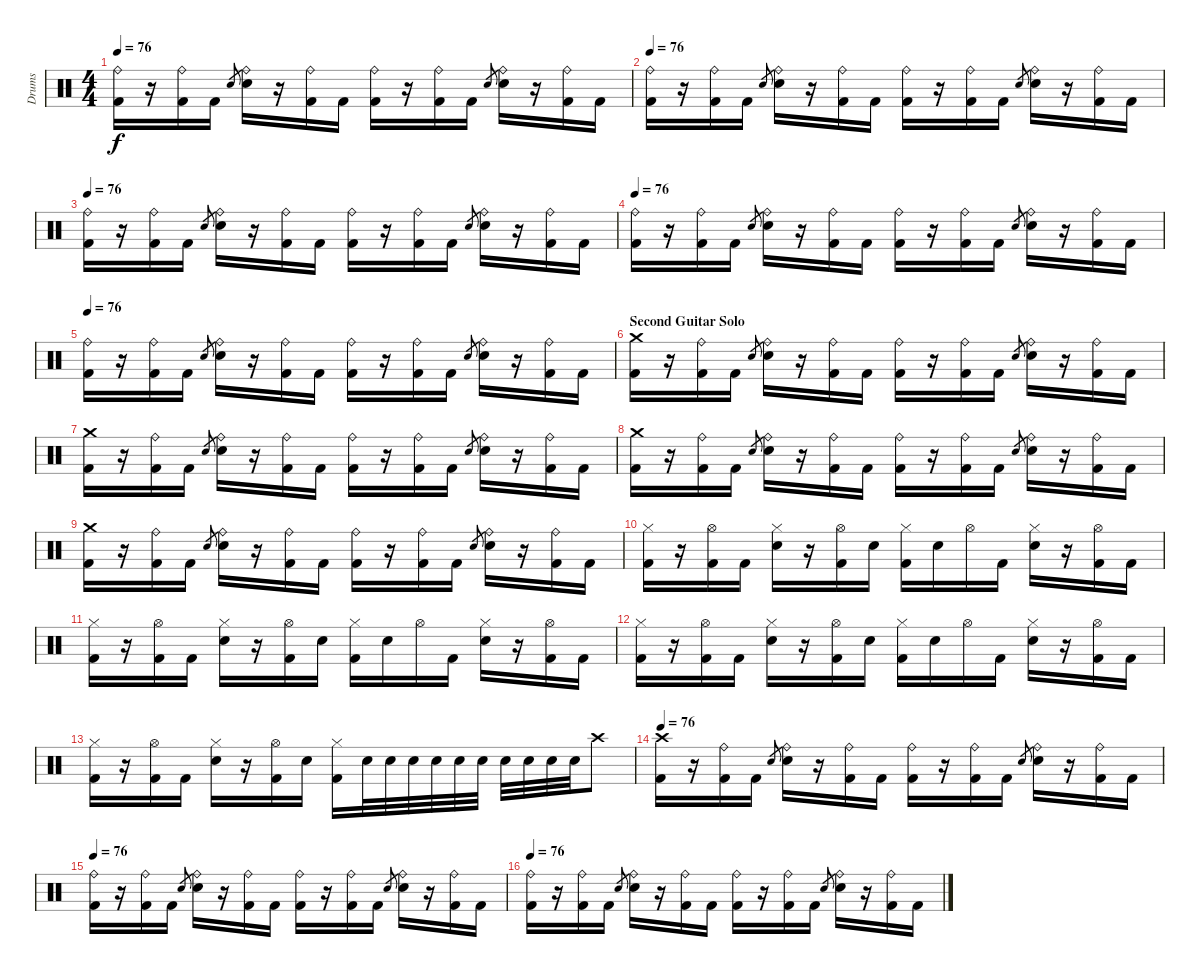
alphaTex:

\track ("Drums" "Drums") {instrument percussion}
\staff {score}
\articulation defaults
\ts (4 4)
\tempo 76
\clef neutral
\ks c
("Ride (bell)" "Kick (hit) 2").16{dy f} r.16 ("Ride (bell)" "Kick (hit) 2").16 "Kick (hit) 2".16 "Electric Snare (hit)".8{gr} ("Ride (bell)" "Electric Snare (hit)").16 r.16 ("Ride (bell)" "Kick (hit) 2").16 "Kick (hit) 2".16 ("Ride (bell)" "Kick (hit) 2").16 r.16 ("Ride (bell)" "Kick (hit) 2").16 "Kick (hit) 2".16 "Electric Snare (hit)".8{gr} ("Ride (bell)" "Electric Snare (hit)").16 r.16 ("Ride (bell)" "Kick (hit) 2").16 "Kick (hit) 2".16 |
\tempo 76
("Ride (bell)" "Kick (hit) 2").16 r.16 ("Ride (bell)" "Kick (hit) 2").16 "Kick (hit) 2".16 "Electric Snare (hit)".8{gr} ("Ride (bell)" "Electric Snare (hit)").16 r.16 ("Ride (bell)" "Kick (hit) 2").16 "Kick (hit) 2".16 ("Ride (bell)" "Kick (hit) 2").16 r.16 ("Ride (bell)" "Kick (hit) 2").16 "Kick (hit) 2".16 "Electric Snare (hit)".8{gr} ("Ride (bell)" "Electric Snare (hit)").16 r.16 ("Ride (bell)" "Kick (hit) 2").16 "Kick (hit) 2".16 |
\tempo 76
("Ride (bell)" "Kick (hit) 2").16 r.16 ("Ride (bell)" "Kick (hit) 2").16 "Kick (hit) 2".16 "Electric Snare (hit)".8{gr} ("Ride (bell)" "Electric Snare (hit)").16 r.16 ("Ride (bell)" "Kick (hit) 2").16 "Kick (hit) 2".16 ("Ride (bell)" "Kick (hit) 2").16 r.16 ("Ride (bell)" "Kick (hit) 2").16 "Kick (hit) 2".16 "Electric Snare (hit)".8{gr} ("Ride (bell)" "Electric Snare (hit)").16 r.16 ("Ride (bell)" "Kick (hit) 2").16 "Kick (hit) 2".16 |
\tempo 76
("Ride (bell)" "Kick (hit) 2").16 r.16 ("Ride (bell)" "Kick (hit) 2").16 "Kick (hit) 2".16 "Electric Snare (hit)".8{gr} ("Ride (bell)" "Electric Snare (hit)").16 r.16 ("Ride (bell)" "Kick (hit) 2").16 "Kick (hit) 2".16 ("Ride (bell)" "Kick (hit) 2").16 r.16 ("Ride (bell)" "Kick (hit) 2").16 "Kick (hit) 2".16 "Electric Snare (hit)".8{gr} ("Ride (bell)" "Electric Snare (hit)").16 r.16 ("Ride (bell)" "Kick (hit) 2").16 "Kick (hit) 2".16 |
\tempo 76
("Ride (bell)" "Kick (hit) 2").16 r.16 ("Ride (bell)" "Kick (hit) 2").16 "Kick (hit) 2".16 "Electric Snare (hit)".8{gr} ("Ride (bell)" "Electric Snare (hit)").16 r.16 ("Ride (bell)" "Kick (hit) 2").16 "Kick (hit) 2".16 ("Ride (bell)" "Kick (hit) 2").16 r.16 ("Ride (bell)" "Kick (hit) 2").16 "Kick (hit) 2".16 "Electric Snare (hit)".8{gr} ("Ride (bell)" "Electric Snare (hit)").16 r.16 ("Ride (bell)" "Kick (hit) 2").16 "Kick (hit) 2".16 |
\section ("" "Second Guitar Solo")
("Crash medium (hit)" "Kick (hit) 2").16 r.16 ("Ride (bell)" "Kick (hit) 2").16 "Kick (hit) 2".16 "Electric Snare (hit)".8{gr} ("Ride (bell)" "Electric Snare (hit)").16 r.16 ("Ride (bell)" "Kick (hit) 2").16 "Kick (hit) 2".16 ("Ride (bell)" "Kick (hit) 2").16 r.16 ("Ride (bell)" "Kick (hit) 2").16 "Kick (hit) 2".16 "Electric Snare (hit)".8{gr} ("Ride (bell)" "Electric Snare (hit)").16 r.16 ("Ride (bell)" "Kick (hit) 2").16 "Kick (hit) 2".16 |
("Crash medium (hit)" "Kick (hit) 2").16 r.16 ("Ride (bell)" "Kick (hit) 2").16 "Kick (hit) 2".16 "Electric Snare (hit)".8{gr} ("Ride (bell)" "Electric Snare (hit)").16 r.16 ("Ride (bell)" "Kick (hit) 2").16 "Kick (hit) 2".16 ("Ride (bell)" "Kick (hit) 2").16 r.16 ("Ride (bell)" "Kick (hit) 2").16 "Kick (hit) 2".16 "Electric Snare (hit)".8{gr} ("Ride (bell)" "Electric Snare (hit)").16 r.16 ("Ride (bell)" "Kick (hit) 2").16 "Kick (hit) 2".16 |
("Crash medium (hit)" "Kick (hit) 2").16 r.16 ("Ride (bell)" "Kick (hit) 2").16 "Kick (hit) 2".16 "Electric Snare (hit)".8{gr} ("Ride (bell)" "Electric Snare (hit)").16 r.16 ("Ride (bell)" "Kick (hit) 2").16 "Kick (hit) 2".16 ("Ride (bell)" "Kick (hit) 2").16 r.16 ("Ride (bell)" "Kick (hit) 2").16 "Kick (hit) 2".16 "Electric Snare (hit)".8{gr} ("Ride (bell)" "Electric Snare (hit)").16 r.16 ("Ride (bell)" "Kick (hit) 2").16 "Kick (hit) 2".16 |
("Crash medium (hit)" "Kick (hit) 2").16 r.16 ("Ride (bell)" "Kick (hit) 2").16 "Kick (hit) 2".16 "Electric Snare (hit)".8{gr} ("Ride (bell)" "Electric Snare (hit)").16 r.16 ("Ride (bell)" "Kick (hit) 2").16 "Kick (hit) 2".16 ("Ride (bell)" "Kick (hit) 2").16 r.16 ("Ride (bell)" "Kick (hit) 2").16 "Kick (hit) 2".16 "Electric Snare (hit)".8{gr} ("Ride (bell)" "Electric Snare (hit)").16 r.16 ("Ride (bell)" "Kick (hit) 2").16 "Kick (hit) 2".16 |
("Hi-Hat (closed)" "Kick (hit) 2").16 r.16 ("Hi-Hat (open)" "Kick (hit) 2").16 "Kick (hit) 2".16 ("Hi-Hat (closed)" "Electric Snare (hit)").16 r.16 ("Hi-Hat (open)" "Kick (hit) 2").16 "Electric Snare (hit)".16 ("Hi-Hat (closed)" "Kick (hit) 2").16 "Electric Snare (hit)".16 "Hi-Hat (open)".16 "Kick (hit) 2".16 ("Hi-Hat (closed)" "Electric Snare (hit)").16 r.16 ("Hi-Hat (open)" "Kick (hit) 2").16 "Kick (hit) 2".16 |
("Hi-Hat (closed)" "Kick (hit) 2").16 r.16 ("Hi-Hat (open)" "Kick (hit) 2").16 "Kick (hit) 2".16 ("Hi-Hat (closed)" "Electric Snare (hit)").16 r.16 ("Hi-Hat (open)" "Kick (hit) 2").16 "Electric Snare (hit)".16 ("Hi-Hat (closed)" "Kick (hit) 2").16 "Electric Snare (hit)".16 "Hi-Hat (open)".16 "Kick (hit) 2".16 ("Hi-Hat (closed)" "Electric Snare (hit)").16 r.16 ("Hi-Hat (open)" "Kick (hit) 2").16 "Kick (hit) 2".16 |
("Hi-Hat (closed)" "Kick (hit) 2").16 r.16 ("Hi-Hat (open)" "Kick (hit) 2").16 "Kick (hit) 2".16 ("Hi-Hat (closed)" "Electric Snare (hit)").16 r.16 ("Hi-Hat (open)" "Kick (hit) 2").16 "Electric Snare (hit)".16 ("Hi-Hat (closed)" "Kick (hit) 2").16 "Electric Snare (hit)".16 "Hi-Hat (open)".16 "Kick (hit) 2".16 ("Hi-Hat (closed)" "Electric Snare (hit)").16 r.16 ("Hi-Hat (open)" "Kick (hit) 2").16 "Kick (hit) 2".16 |
("Hi-Hat (closed)" "Kick (hit) 2").16 r.16 ("Hi-Hat (open)" "Kick (hit) 2").16 "Kick (hit) 2".16 ("Hi-Hat (closed)" "Electric Snare (hit)").16 r.16 ("Hi-Hat (open)" "Kick (hit) 2").16 "Electric Snare (hit)".16 ("Hi-Hat (closed)" "Kick (hit) 2").16 "Electric Snare (hit)".32 "Electric Snare (hit)".32 "Electric Snare (hit)".32 "Electric Snare (hit)".32 "Electric Snare (hit)".32 "Electric Snare (hit)".32 "Electric Snare (hit)".32 "Electric Snare (hit)".32 "Electric Snare (hit)".32 "Electric Snare (hit)".32 "Crash high (hit)".8 |
\tempo 76
("Crash high (hit)" "Kick (hit) 2").16 r.16 ("Ride (bell)" "Kick (hit) 2").16 "Kick (hit) 2".16 "Electric Snare (hit)".8{gr} ("Ride (bell)" "Electric Snare (hit)").16 r.16 ("Ride (bell)" "Kick (hit) 2").16 "Kick (hit) 2".16 ("Ride (bell)" "Kick (hit) 2").16 r.16 ("Ride (bell)" "Kick (hit) 2").16 "Kick (hit) 2".16 "Electric Snare (hit)".8{gr} ("Ride (bell)" "Electric Snare (hit)").16 r.16 ("Ride (bell)" "Kick (hit) 2").16 "Kick (hit) 2".16 |
\tempo 76
("Ride (bell)" "Kick (hit) 2").16 r.16 ("Ride (bell)" "Kick (hit) 2").16 "Kick (hit) 2".16 "Electric Snare (hit)".8{gr} ("Ride (bell)" "Electric Snare (hit)").16 r.16 ("Ride (bell)" "Kick (hit) 2").16 "Kick (hit) 2".16 ("Ride (bell)" "Kick (hit) 2").16 r.16 ("Ride (bell)" "Kick (hit) 2").16 "Kick (hit) 2".16 "Electric Snare (hit)".8{gr} ("Ride (bell)" "Electric Snare (hit)").16 r.16 ("Ride (bell)" "Kick (hit) 2").16 "Kick (hit) 2".16 |
\tempo 76
("Ride (bell)" "Kick (hit) 2").16 r.16 ("Ride (bell)" "Kick (hit) 2").16 "Kick (hit) 2".16 "Electric Snare (hit)".8{gr} ("Ride (bell)" "Electric Snare (hit)").16 r.16 ("Ride (bell)" "Kick (hit) 2").16 "Kick (hit) 2".16 ("Ride (bell)" "Kick (hit) 2").16 r.16 ("Ride (bell)" "Kick (hit) 2").16 "Kick (hit) 2".16 "Electric Snare (hit)".8{gr} ("Ride (bell)" "Electric Snare (hit)").16 r.16 ("Ride (bell)" "Kick (hit) 2").16 "Kick (hit) 2".16
